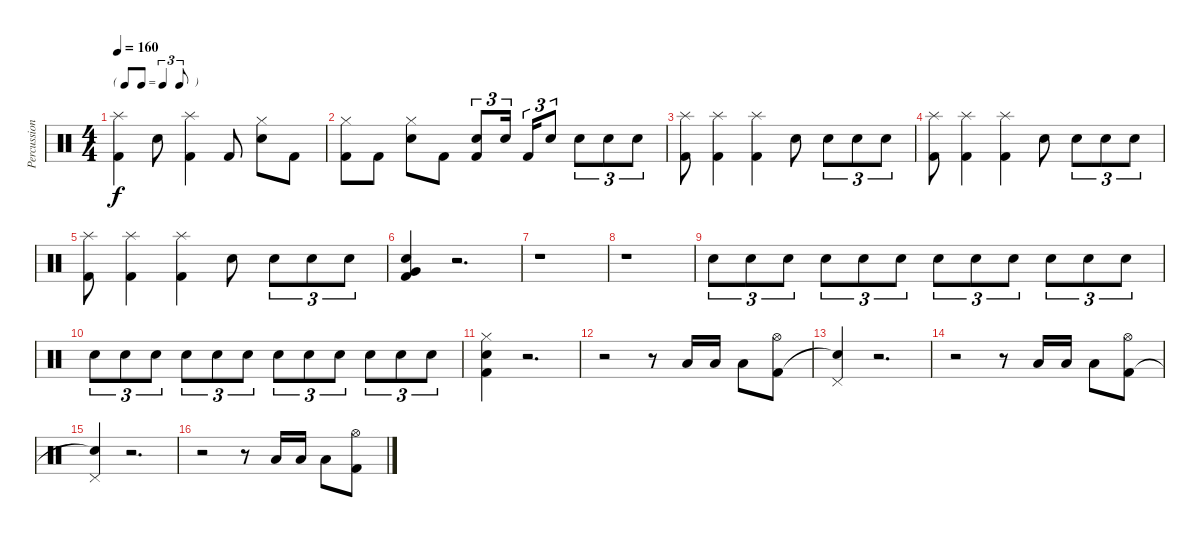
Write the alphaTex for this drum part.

\track ("Percussion" "Percussion") {instrument percussion}
\staff {score}
\articulation defaults
\ts (4 4)
\tf triplet8th
\tempo 160
\clef neutral
\ks c
("Kick (hit) 2" "Splash (hit)").4{dy f} "Snare (hit) 2".8 ("Kick (hit) 2" "Splash (hit)").4 "Kick (hit) 2".8 ("Snare (hit) 2" "Hi-Hat (closed)").8 "Kick (hit) 2".8 |
("Kick (hit) 2" "Hi-Hat (closed)").8 "Kick (hit) 2".8 ("Snare (hit) 2" "Hi-Hat (closed)").8 "Kick (hit) 2".8 ("Snare (hit) 2" "Kick (hit) 2").8{tu (3 2)} "Snare (hit) 2".16{tu (3 2)} "Kick (hit) 2".16{tu (3 2)} "Snare (hit) 2".8{tu (3 2)} "Snare (hit) 2".8{tu (3 2)} "Snare (hit) 2".8{tu (3 2)} "Snare (hit) 2".8{tu (3 2)} |
("Kick (hit) 2" "Splash (hit)").8 ("Kick (hit) 2" "Splash (hit)").4 ("Kick (hit) 2" "Splash (hit)").4 "Snare (hit) 2".8 "Snare (hit) 2".8{tu (3 2)} "Snare (hit) 2".8{tu (3 2)} "Snare (hit) 2".8{tu (3 2)} |
("Kick (hit) 2" "Splash (hit)").8 ("Kick (hit) 2" "Splash (hit)").4 ("Kick (hit) 2" "Splash (hit)").4 "Snare (hit) 2".8 "Snare (hit) 2".8{tu (3 2)} "Snare (hit) 2".8{tu (3 2)} "Snare (hit) 2".8{tu (3 2)} |
("Kick (hit) 2" "Splash (hit)").8 ("Kick (hit) 2" "Splash (hit)").4 ("Kick (hit) 2" "Splash (hit)").4 "Snare (hit) 2".8 "Snare (hit) 2".8{tu (3 2)} "Snare (hit) 2".8{tu (3 2)} "Snare (hit) 2".8{tu (3 2)} |
("Kick (hit) 2" "Very Low Tom (hit)" "Snare (hit) 2").4 r.2{d} |
r.1 |
r.1 |
"Snare (hit) 2".8{tu (3 2)} "Snare (hit) 2".8{tu (3 2)} "Snare (hit) 2".8{tu (3 2)} "Snare (hit) 2".8{tu (3 2)} "Snare (hit) 2".8{tu (3 2)} "Snare (hit) 2".8{tu (3 2)} "Snare (hit) 2".8{tu (3 2)} "Snare (hit) 2".8{tu (3 2)} "Snare (hit) 2".8{tu (3 2)} "Snare (hit) 2".8{tu (3 2)} "Snare (hit) 2".8{tu (3 2)} "Snare (hit) 2".8{tu (3 2)} |
"Snare (hit) 2".8{tu (3 2)} "Snare (hit) 2".8{tu (3 2)} "Snare (hit) 2".8{tu (3 2)} "Snare (hit) 2".8{tu (3 2)} "Snare (hit) 2".8{tu (3 2)} "Snare (hit) 2".8{tu (3 2)} "Snare (hit) 2".8{tu (3 2)} "Snare (hit) 2".8{tu (3 2)} "Snare (hit) 2".8{tu (3 2)} "Snare (hit) 2".8{tu (3 2)} "Snare (hit) 2".8{tu (3 2)} "Snare (hit) 2".8{tu (3 2)} |
("Kick (hit) 2" "Snare (hit) 2" "Hi-Hat (closed)").4 r.2{d} |
r.2 r.8 "Low Tom (hit)".16 "Low Tom (hit)".16 "Low Floor Tom (hit)".8 ("Kick (hit) 2" "Hi-Hat (open)").8 |
("Snare (hit)"{t} "Pedal Hi-Hat (hit)").4 r.2{d} |
r.2 r.8 "Low Tom (hit)".16 "Low Tom (hit)".16 "Low Floor Tom (hit)".8 ("Kick (hit) 2" "Hi-Hat (open)").8 |
("Snare (hit)"{t} "Pedal Hi-Hat (hit)").4 r.2{d} |
r.2 r.8 "Low Tom (hit)".16 "Low Tom (hit)".16 "Low Floor Tom (hit)".8 ("Kick (hit) 2" "Hi-Hat (open)").8
